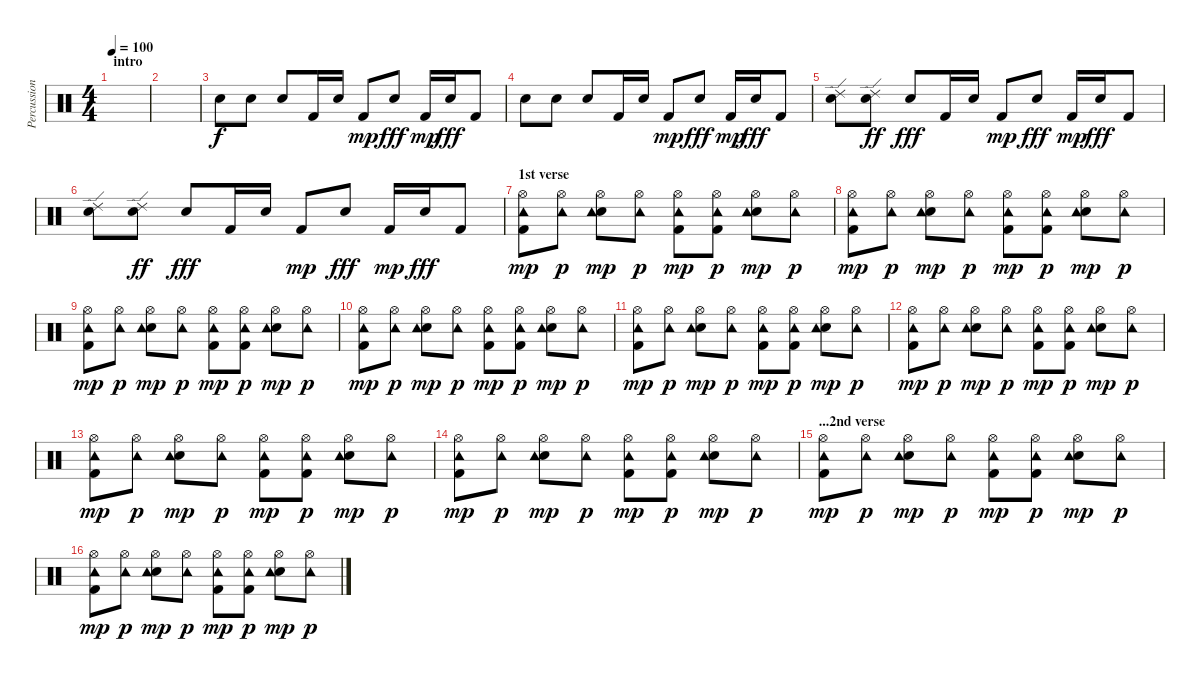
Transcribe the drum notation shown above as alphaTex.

\track ("Percussions" "Percussion") {instrument percussion}
\staff {score}
\articulation defaults
\ts (4 4)
\section ("" "intro")
\tempo 100
\clef neutral
\ks c
|
|
"Snare (hit) 2".8 "Snare (hit) 2".8 "Snare (hit) 2".8 "Kick (hit) 2".16 "Snare (hit) 2".16 "Kick (hit) 2".8{dy mp} "Snare (hit) 2".8{dy fff} "Kick (hit) 2".16{dy mp} "Snare (hit) 2".16{dy fff} "Kick (hit) 2".8 |
"Snare (hit) 2".8 "Snare (hit) 2".8 "Snare (hit) 2".8 "Kick (hit) 2".16 "Snare (hit) 2".16 "Kick (hit) 2".8{dy mp} "Snare (hit) 2".8{dy fff} "Kick (hit) 2".16{dy mp} "Snare (hit) 2".16{dy fff} "Kick (hit) 2".8 |
("Snare (hit) 2" "Ride (edge) 2").8 ("Snare (hit) 2" "Ride (edge) 2").8{dy ff} "Snare (hit) 2".8{dy fff} "Kick (hit) 2".16 "Snare (hit) 2".16 "Kick (hit) 2".8{dy mp} "Snare (hit) 2".8{dy fff} "Kick (hit) 2".16{dy mp} "Snare (hit) 2".16{dy fff} "Kick (hit) 2".8 |
("Snare (hit) 2" "Ride (edge) 2").8 ("Snare (hit) 2" "Ride (edge) 2").8{dy ff} "Snare (hit) 2".8{dy fff} "Kick (hit) 2".16 "Snare (hit) 2".16 "Kick (hit) 2".8{dy mp} "Snare (hit) 2".8{dy fff} "Kick (hit) 2".16{dy mp} "Snare (hit) 2".16{dy fff} "Kick (hit) 2".8 |
\section ("" "1st verse")
("Kick (hit) 2" "Tambourine (hit)" "Hi-Hat (open)").8{dy mp} ("Tambourine (hit)" "Hi-Hat (open)").8{dy p} ("Snare (hit) 2" "Tambourine (hit)" "Hi-Hat (open)").8{dy mp} ("Tambourine (hit)" "Hi-Hat (open)").8{dy p} ("Kick (hit) 2" "Tambourine (hit)" "Hi-Hat (open)").8{dy mp} ("Kick (hit) 2" "Tambourine (hit)" "Hi-Hat (open)").8{dy p} ("Snare (hit) 2" "Tambourine (hit)" "Hi-Hat (open)").8{dy mp} ("Tambourine (hit)" "Hi-Hat (open)").8{dy p} |
("Kick (hit) 2" "Tambourine (hit)" "Hi-Hat (open)").8{dy mp} ("Tambourine (hit)" "Hi-Hat (open)").8{dy p} ("Snare (hit) 2" "Tambourine (hit)" "Hi-Hat (open)").8{dy mp} ("Tambourine (hit)" "Hi-Hat (open)").8{dy p} ("Kick (hit) 2" "Tambourine (hit)" "Hi-Hat (open)").8{dy mp} ("Kick (hit) 2" "Tambourine (hit)" "Hi-Hat (open)").8{dy p} ("Snare (hit) 2" "Tambourine (hit)" "Hi-Hat (open)").8{dy mp} ("Tambourine (hit)" "Hi-Hat (open)").8{dy p} |
("Kick (hit) 2" "Tambourine (hit)" "Hi-Hat (open)").8{dy mp} ("Tambourine (hit)" "Hi-Hat (open)").8{dy p} ("Snare (hit) 2" "Tambourine (hit)" "Hi-Hat (open)").8{dy mp} ("Tambourine (hit)" "Hi-Hat (open)").8{dy p} ("Kick (hit) 2" "Tambourine (hit)" "Hi-Hat (open)").8{dy mp} ("Kick (hit) 2" "Tambourine (hit)" "Hi-Hat (open)").8{dy p} ("Snare (hit) 2" "Tambourine (hit)" "Hi-Hat (open)").8{dy mp} ("Tambourine (hit)" "Hi-Hat (open)").8{dy p} |
("Kick (hit) 2" "Tambourine (hit)" "Hi-Hat (open)").8{dy mp} ("Tambourine (hit)" "Hi-Hat (open)").8{dy p} ("Snare (hit) 2" "Tambourine (hit)" "Hi-Hat (open)").8{dy mp} ("Tambourine (hit)" "Hi-Hat (open)").8{dy p} ("Kick (hit) 2" "Tambourine (hit)" "Hi-Hat (open)").8{dy mp} ("Kick (hit) 2" "Tambourine (hit)" "Hi-Hat (open)").8{dy p} ("Snare (hit) 2" "Tambourine (hit)" "Hi-Hat (open)").8{dy mp} ("Tambourine (hit)" "Hi-Hat (open)").8{dy p} |
("Kick (hit) 2" "Tambourine (hit)" "Hi-Hat (open)").8{dy mp} ("Tambourine (hit)" "Hi-Hat (open)").8{dy p} ("Snare (hit) 2" "Tambourine (hit)" "Hi-Hat (open)").8{dy mp} ("Tambourine (hit)" "Hi-Hat (open)").8{dy p} ("Kick (hit) 2" "Tambourine (hit)" "Hi-Hat (open)").8{dy mp} ("Kick (hit) 2" "Tambourine (hit)" "Hi-Hat (open)").8{dy p} ("Snare (hit) 2" "Tambourine (hit)" "Hi-Hat (open)").8{dy mp} ("Tambourine (hit)" "Hi-Hat (open)").8{dy p} |
("Kick (hit) 2" "Tambourine (hit)" "Hi-Hat (open)").8{dy mp} ("Tambourine (hit)" "Hi-Hat (open)").8{dy p} ("Snare (hit) 2" "Tambourine (hit)" "Hi-Hat (open)").8{dy mp} ("Tambourine (hit)" "Hi-Hat (open)").8{dy p} ("Kick (hit) 2" "Tambourine (hit)" "Hi-Hat (open)").8{dy mp} ("Kick (hit) 2" "Tambourine (hit)" "Hi-Hat (open)").8{dy p} ("Snare (hit) 2" "Tambourine (hit)" "Hi-Hat (open)").8{dy mp} ("Tambourine (hit)" "Hi-Hat (open)").8{dy p} |
("Kick (hit) 2" "Tambourine (hit)" "Hi-Hat (open)").8{dy mp} ("Tambourine (hit)" "Hi-Hat (open)").8{dy p} ("Snare (hit) 2" "Tambourine (hit)" "Hi-Hat (open)").8{dy mp} ("Tambourine (hit)" "Hi-Hat (open)").8{dy p} ("Kick (hit) 2" "Tambourine (hit)" "Hi-Hat (open)").8{dy mp} ("Kick (hit) 2" "Tambourine (hit)" "Hi-Hat (open)").8{dy p} ("Snare (hit) 2" "Tambourine (hit)" "Hi-Hat (open)").8{dy mp} ("Tambourine (hit)" "Hi-Hat (open)").8{dy p} |
("Kick (hit) 2" "Tambourine (hit)" "Hi-Hat (open)").8{dy mp} ("Tambourine (hit)" "Hi-Hat (open)").8{dy p} ("Snare (hit) 2" "Tambourine (hit)" "Hi-Hat (open)").8{dy mp} ("Tambourine (hit)" "Hi-Hat (open)").8{dy p} ("Kick (hit) 2" "Tambourine (hit)" "Hi-Hat (open)").8{dy mp} ("Kick (hit) 2" "Tambourine (hit)" "Hi-Hat (open)").8{dy p} ("Snare (hit) 2" "Tambourine (hit)" "Hi-Hat (open)").8{dy mp} ("Tambourine (hit)" "Hi-Hat (open)").8{dy p} |
\section ("" "...2nd verse")
("Kick (hit) 2" "Tambourine (hit)" "Hi-Hat (open)").8{dy mp} ("Tambourine (hit)" "Hi-Hat (open)").8{dy p} ("Snare (hit) 2" "Tambourine (hit)" "Hi-Hat (open)").8{dy mp} ("Tambourine (hit)" "Hi-Hat (open)").8{dy p} ("Kick (hit) 2" "Tambourine (hit)" "Hi-Hat (open)").8{dy mp} ("Kick (hit) 2" "Tambourine (hit)" "Hi-Hat (open)").8{dy p} ("Snare (hit) 2" "Tambourine (hit)" "Hi-Hat (open)").8{dy mp} ("Tambourine (hit)" "Hi-Hat (open)").8{dy p} |
("Kick (hit) 2" "Tambourine (hit)" "Hi-Hat (open)").8{dy mp} ("Tambourine (hit)" "Hi-Hat (open)").8{dy p} ("Snare (hit) 2" "Tambourine (hit)" "Hi-Hat (open)").8{dy mp} ("Tambourine (hit)" "Hi-Hat (open)").8{dy p} ("Kick (hit) 2" "Tambourine (hit)" "Hi-Hat (open)").8{dy mp} ("Kick (hit) 2" "Tambourine (hit)" "Hi-Hat (open)").8{dy p} ("Snare (hit) 2" "Tambourine (hit)" "Hi-Hat (open)").8{dy mp} ("Tambourine (hit)" "Hi-Hat (open)").8{dy p}
